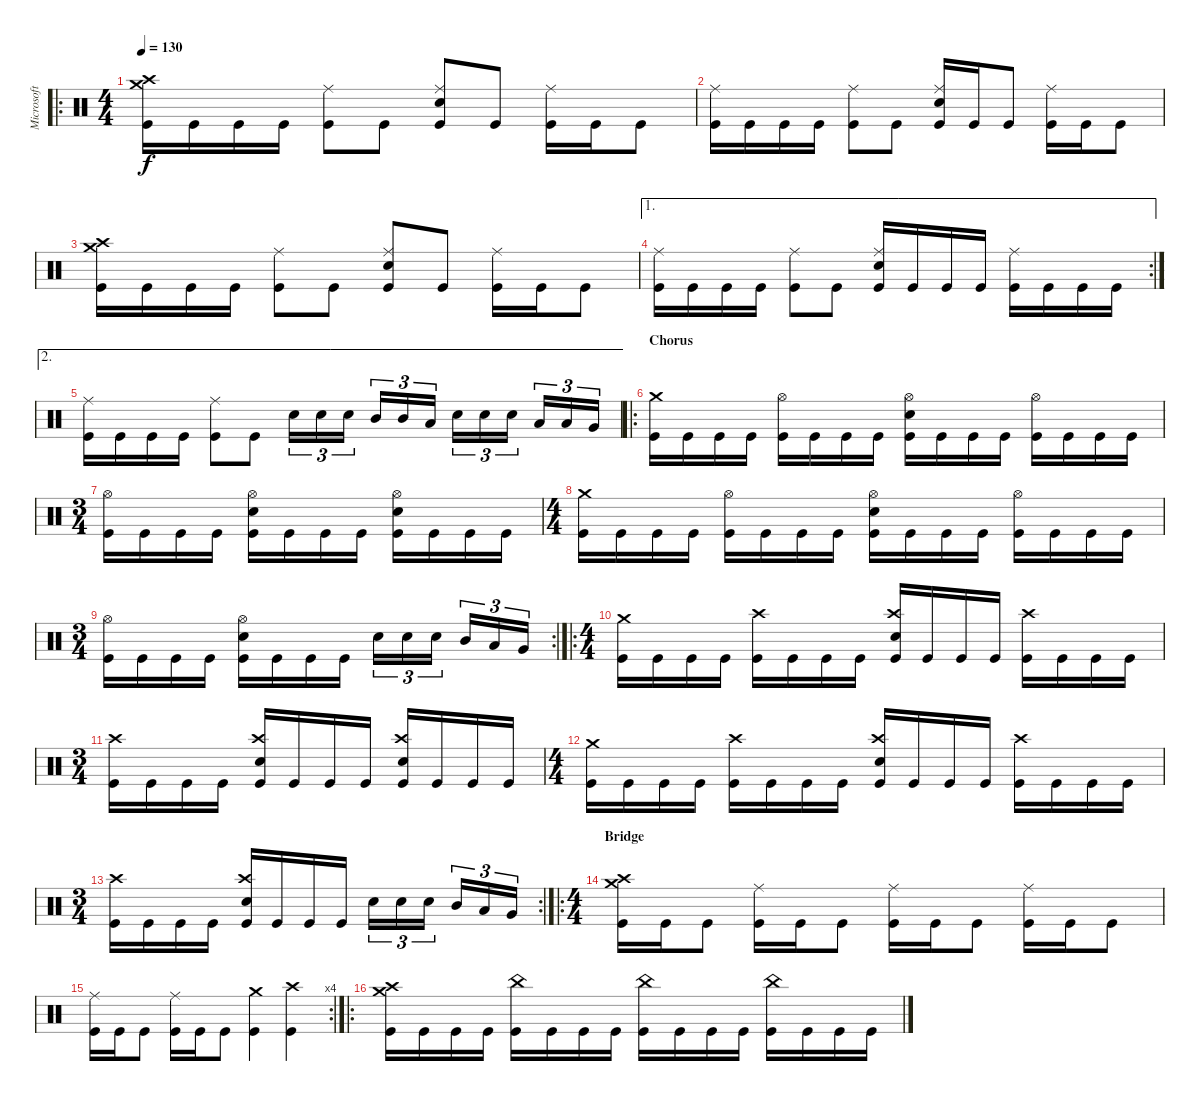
\track ("Microsoft S.A.M." "Microsoft ") {instrument percussion}
\staff {score}
\articulation defaults
\ro
\ts (4 4)
\tempo 130
\clef neutral
\ks c
("Kick (hit)" "Crash medium (hit)" "Crash high (hit)").16{dy f} "Kick (hit)".16 "Kick (hit)".16 "Kick (hit)".16 ("Kick (hit)" "Ride (middle)").8 "Kick (hit)".8 ("Kick (hit)" "Ride (middle)" "Snare (hit) 2").8 "Kick (hit)".8 ("Kick (hit)" "Ride (middle)").16 "Kick (hit)".16 "Kick (hit)".8 |
("Kick (hit)" "Ride (middle)").16 "Kick (hit)".16 "Kick (hit)".16 "Kick (hit)".16 ("Kick (hit)" "Ride (middle)").8 "Kick (hit)".8 ("Kick (hit)" "Ride (middle)" "Snare (hit) 2").16 "Kick (hit)".16 "Kick (hit)".8 ("Kick (hit)" "Ride (middle)").16 "Kick (hit)".16 "Kick (hit)".8 |
("Kick (hit)" "Crash medium (hit)" "Crash high (hit)").16 "Kick (hit)".16 "Kick (hit)".16 "Kick (hit)".16 ("Kick (hit)" "Ride (middle)").8 "Kick (hit)".8 ("Kick (hit)" "Ride (middle)" "Snare (hit) 2").8 "Kick (hit)".8 ("Kick (hit)" "Ride (middle)").16 "Kick (hit)".16 "Kick (hit)".8 |
\ae 1
\rc 2
("Kick (hit)" "Ride (middle)").16 "Kick (hit)".16 "Kick (hit)".16 "Kick (hit)".16 ("Kick (hit)" "Ride (middle)").8 "Kick (hit)".8 ("Kick (hit)" "Ride (middle)" "Snare (hit) 2").16 "Kick (hit)".16 "Kick (hit)".16 "Kick (hit)".16 ("Kick (hit)" "Ride (middle)").16 "Kick (hit)".16 "Kick (hit)".16 "Kick (hit)".16 |
\ae 2
("Kick (hit)" "Ride (middle)").16 "Kick (hit)".16 "Kick (hit)".16 "Kick (hit)".16 ("Kick (hit)" "Ride (middle)").8 "Kick (hit)".8 "Snare (hit) 2".16{tu (3 2)} "Snare (hit) 2".16{tu (3 2)} "Snare (hit) 2".16{tu (3 2)} "Mid Tom (hit)".16{tu (3 2)} "Mid Tom (hit)".16{tu (3 2)} "Low Tom (hit)".16{tu (3 2)} "Snare (hit) 2".16{tu (3 2)} "Snare (hit) 2".16{tu (3 2)} "Snare (hit) 2".16{tu (3 2)} "Low Tom (hit)".16{tu (3 2)} "Low Tom (hit)".16{tu (3 2)} "Very Low Tom (hit)".16{tu (3 2)} |
\ro
\section ("" "Chorus")
("Kick (hit)" "Crash medium (hit)").16 "Kick (hit)".16 "Kick (hit)".16 "Kick (hit)".16 ("Kick (hit)" "Hi-Hat (open)").16 "Kick (hit)".16 "Kick (hit)".16 "Kick (hit)".16 ("Kick (hit)" "Hi-Hat (open)" "Snare (hit) 2").16 "Kick (hit)".16 "Kick (hit)".16 "Kick (hit)".16 ("Kick (hit)" "Hi-Hat (open)").16 "Kick (hit)".16 "Kick (hit)".16 "Kick (hit)".16 |
\ts (3 4)
("Kick (hit)" "Hi-Hat (open)").16 "Kick (hit)".16 "Kick (hit)".16 "Kick (hit)".16 ("Kick (hit)" "Hi-Hat (open)" "Snare (hit) 2").16 "Kick (hit)".16 "Kick (hit)".16 "Kick (hit)".16 ("Kick (hit)" "Hi-Hat (open)" "Snare (hit) 2").16 "Kick (hit)".16 "Kick (hit)".16 "Kick (hit)".16 |
\ts (4 4)
("Kick (hit)" "Crash medium (hit)").16 "Kick (hit)".16 "Kick (hit)".16 "Kick (hit)".16 ("Kick (hit)" "Hi-Hat (open)").16 "Kick (hit)".16 "Kick (hit)".16 "Kick (hit)".16 ("Kick (hit)" "Hi-Hat (open)" "Snare (hit) 2").16 "Kick (hit)".16 "Kick (hit)".16 "Kick (hit)".16 ("Kick (hit)" "Hi-Hat (open)").16 "Kick (hit)".16 "Kick (hit)".16 "Kick (hit)".16 |
\rc 2
\ts (3 4)
("Kick (hit)" "Hi-Hat (open)").16 "Kick (hit)".16 "Kick (hit)".16 "Kick (hit)".16 ("Kick (hit)" "Hi-Hat (open)" "Snare (hit) 2").16 "Kick (hit)".16 "Kick (hit)".16 "Kick (hit)".16 "Snare (hit) 2".16{tu (3 2)} "Snare (hit) 2".16{tu (3 2)} "Snare (hit) 2".16{tu (3 2)} "Mid Tom (hit)".16{tu (3 2)} "Low Tom (hit)".16{tu (3 2)} "Very Low Tom (hit)".16{tu (3 2)} |
\ro
\ts (4 4)
("Kick (hit)" "Crash medium (hit)").16 "Kick (hit)".16 "Kick (hit)".16 "Kick (hit)".16 ("Kick (hit)" "Crash high (hit)").16 "Kick (hit)".16 "Kick (hit)".16 "Kick (hit)".16 ("Kick (hit)" "Snare (hit) 2" "Crash high (hit)").16 "Kick (hit)".16 "Kick (hit)".16 "Kick (hit)".16 ("Kick (hit)" "Crash high (hit)").16 "Kick (hit)".16 "Kick (hit)".16 "Kick (hit)".16 |
\ts (3 4)
("Kick (hit)" "Crash high (hit)").16 "Kick (hit)".16 "Kick (hit)".16 "Kick (hit)".16 ("Kick (hit)" "Crash high (hit)" "Snare (hit) 2").16 "Kick (hit)".16 "Kick (hit)".16 "Kick (hit)".16 ("Kick (hit)" "Snare (hit) 2" "Crash high (hit)").16 "Kick (hit)".16 "Kick (hit)".16 "Kick (hit)".16 |
\ts (4 4)
("Kick (hit)" "Crash medium (hit)").16 "Kick (hit)".16 "Kick (hit)".16 "Kick (hit)".16 ("Kick (hit)" "Crash high (hit)").16 "Kick (hit)".16 "Kick (hit)".16 "Kick (hit)".16 ("Kick (hit)" "Snare (hit) 2" "Crash high (hit)").16 "Kick (hit)".16 "Kick (hit)".16 "Kick (hit)".16 ("Kick (hit)" "Crash high (hit)").16 "Kick (hit)".16 "Kick (hit)".16 "Kick (hit)".16 |
\rc 2
\ts (3 4)
("Kick (hit)" "Crash high (hit)").16 "Kick (hit)".16 "Kick (hit)".16 "Kick (hit)".16 ("Kick (hit)" "Crash high (hit)" "Snare (hit) 2").16 "Kick (hit)".16 "Kick (hit)".16 "Kick (hit)".16 "Snare (hit) 2".16{tu (3 2)} "Snare (hit) 2".16{tu (3 2)} "Snare (hit) 2".16{tu (3 2)} "Mid Tom (hit)".16{tu (3 2)} "Low Tom (hit)".16{tu (3 2)} "Very Low Tom (hit)".16{tu (3 2)} |
\ro
\ts (4 4)
\section ("" "Bridge")
("Kick (hit)" "Crash medium (hit)" "Crash high (hit)").16 "Kick (hit)".16 "Kick (hit)".8 ("Kick (hit)" "Ride (middle)").16 "Kick (hit)".16 "Kick (hit)".8 ("Kick (hit)" "Ride (middle)").16 "Kick (hit)".16 "Kick (hit)".8 ("Kick (hit)" "Ride (middle)").16 "Kick (hit)".16 "Kick (hit)".8 |
\rc 4
("Kick (hit)" "Ride (middle)").16 "Kick (hit)".16 "Kick (hit)".8 ("Kick (hit)" "Ride (middle)").16 "Kick (hit)".16 "Kick (hit)".8 ("Kick (hit)" "Crash medium (hit)").4 ("Kick (hit)" "Crash high (hit)").4 |
\ro
("Kick (hit)" "Crash medium (hit)" "Crash high (hit)").16 "Kick (hit)".16 "Kick (hit)".16 "Kick (hit)".16 ("Kick (hit)" "China (hit)").16 "Kick (hit)".16 "Kick (hit)".16 "Kick (hit)".16 ("Kick (hit)" "China (hit)").16 "Kick (hit)".16 "Kick (hit)".16 "Kick (hit)".16 ("Kick (hit)" "China (hit)").16 "Kick (hit)".16 "Kick (hit)".16 "Kick (hit)".16
